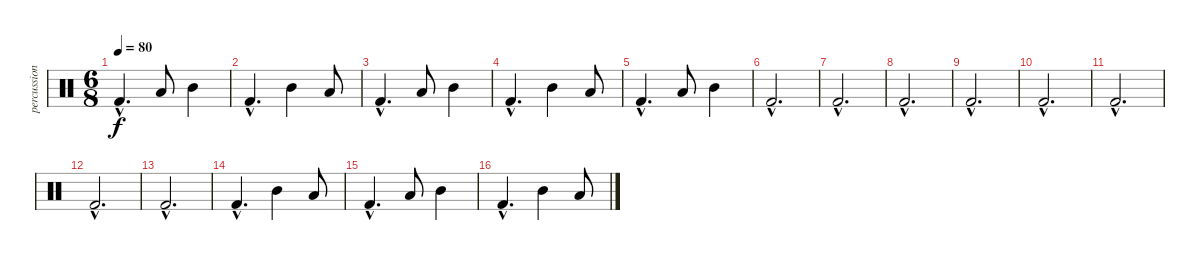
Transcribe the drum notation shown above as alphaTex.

\track ("percussions" "percussion") {instrument percussion}
\staff {score}
\articulation defaults
\ts (6 8)
\tempo 80
\clef neutral
\ks c "Kick (hit) 2"{hac}.4{d dy f} "Low Tom (hit)".8 "Mid Tom (hit)".4
|
"Kick (hit) 2"{hac}.4{d} "Mid Tom (hit)".4 "Low Tom (hit)".8 |
"Kick (hit) 2"{hac}.4{d} "Low Tom (hit)".8 "Mid Tom (hit)".4 |
"Kick (hit) 2"{hac}.4{d} "Mid Tom (hit)".4 "Low Tom (hit)".8 |
"Kick (hit) 2"{hac}.4{d} "Low Tom (hit)".8 "Mid Tom (hit)".4 |
"Kick (hit) 2"{hac}.2{d} |
"Kick (hit) 2"{hac}.2{d} |
"Kick (hit) 2"{hac}.2{d} |
"Kick (hit) 2"{hac}.2{d} |
"Kick (hit) 2"{hac}.2{d} |
"Kick (hit) 2"{hac}.2{d} |
"Kick (hit) 2"{hac}.2{d} |
"Kick (hit) 2"{hac}.2{d} |
"Kick (hit) 2"{hac}.4{d} "Mid Tom (hit)".4 "Low Tom (hit)".8 |
"Kick (hit) 2"{hac}.4{d} "Low Tom (hit)".8 "Mid Tom (hit)".4 |
"Kick (hit) 2"{hac}.4{d} "Mid Tom (hit)".4 "Low Tom (hit)".8
